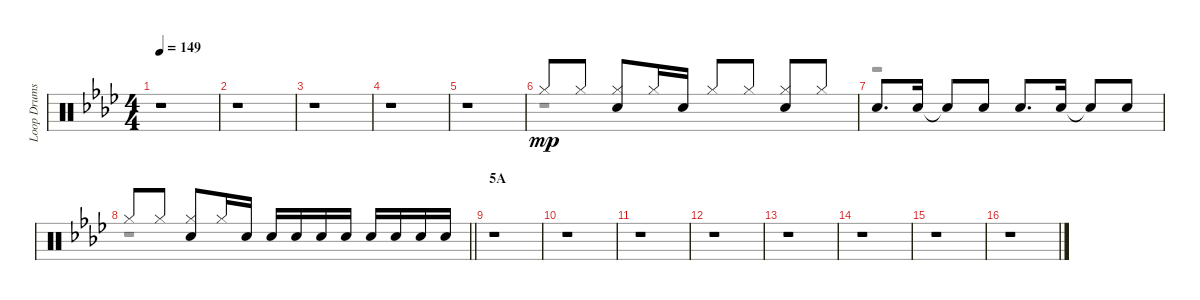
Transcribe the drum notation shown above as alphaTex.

\track ("Loop Drums" "Loop Drums") {instrument percussion}
\staff {score}
\articulation defaults
\voice
\ts (4 4)
\tempo 149
\clef neutral
\ks ab
r.1{dy mp} |
r.1 |
r.1 |
r.1 |
r.1 |
"Hi-Hat (closed)".8 "Hi-Hat (closed)".8 ("Hi-Hat (closed)" "Electric Snare (hit)").8 "Hi-Hat (closed)".16 "Electric Snare (hit)".16 "Hi-Hat (closed)".8 "Hi-Hat (closed)".8 ("Hi-Hat (closed)" "Electric Snare (hit)").8 "Hi-Hat (closed)".8 |
"Electric Snare (hit)".8{d} "Electric Snare (hit)".16 "Snare (hit)"{t}.8 "Electric Snare (hit)".8 "Electric Snare (hit)".8{d} "Electric Snare (hit)".16 "Snare (hit)"{t}.8 "Electric Snare (hit)".8 |
\barLineRight lightlight "Hi-Hat (closed)".8 "Hi-Hat (closed)".8
("Hi-Hat (closed)" "Electric Snare (hit)").8 "Hi-Hat (closed)".16 "Electric Snare (hit)".16 "Electric Snare (hit)".16 "Electric Snare (hit)".16 "Electric Snare (hit)".16 "Electric Snare (hit)".16 "Electric Snare (hit)".16 "Electric Snare (hit)".16 "Electric Snare (hit)".16 "Electric Snare (hit)".16 |
\section ("" "5A")
r.1 |
r.1 |
r.1 |
r.1 |
r.1 |
r.1 |
r.1 |
r.1
\voice
\clef neutral
\ottava regular
\simile none
\ks ab
r.1{dy f} |
r.1 |
r.1 |
r.1 |
r.1 |
r.1 |
r.1 |
\barLineRight lightlight
r.1 |
r.1 |
r.1 |
r.1 |
r.1 |
r.1 |
r.1 |
r.1 |
r.1
